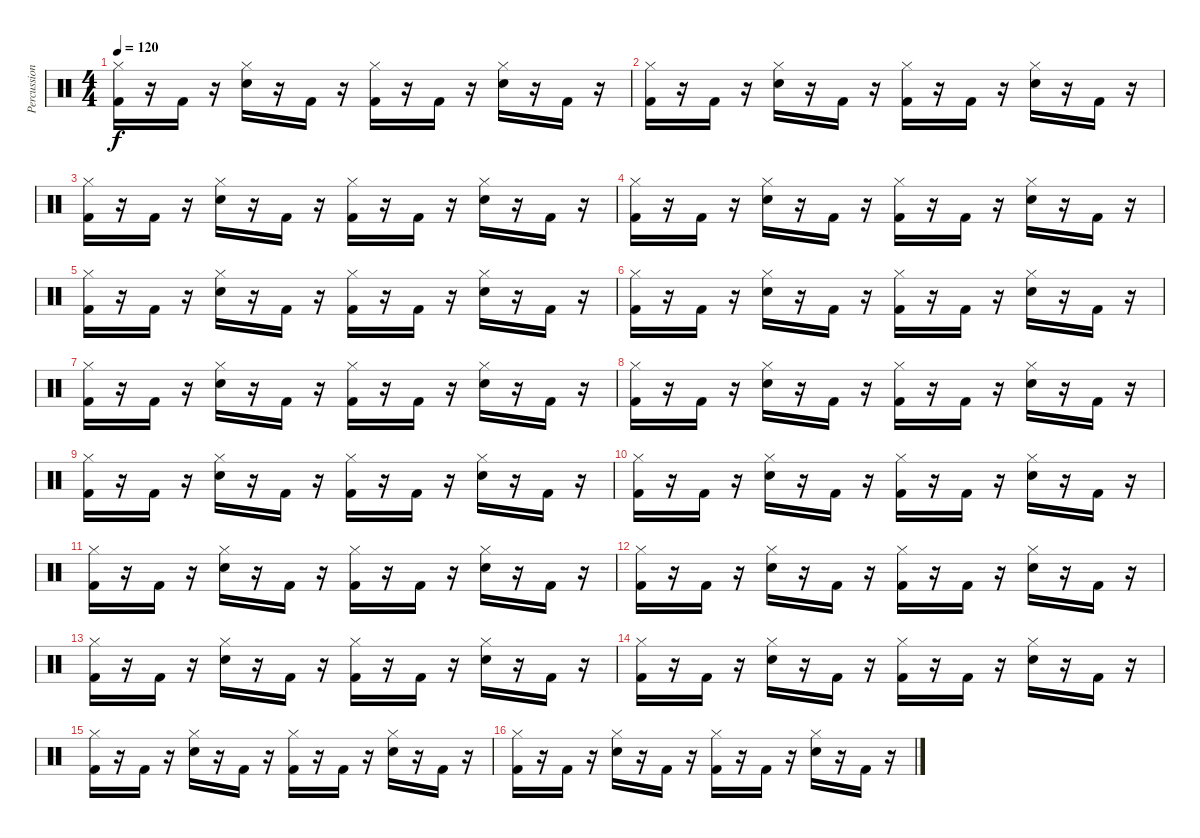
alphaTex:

\track ("Percussion" "Percussion") {instrument percussion}
\staff {score}
\articulation defaults
\ts (4 4)
\tempo 120
\clef neutral
\ks c
("Kick (hit) 2" "Hi-Hat (closed)").16{dy f} r.16 "Kick (hit) 2".16 r.16 ("Snare (hit) 2" "Hi-Hat (closed)").16 r.16 "Kick (hit) 2".16 r.16 ("Kick (hit) 2" "Hi-Hat (closed)").16 r.16 "Kick (hit) 2".16 r.16 ("Snare (hit) 2" "Hi-Hat (closed)").16 r.16 "Kick (hit) 2".16 r.16 |
("Kick (hit) 2" "Hi-Hat (closed)").16 r.16 "Kick (hit) 2".16 r.16 ("Snare (hit) 2" "Hi-Hat (closed)").16 r.16 "Kick (hit) 2".16 r.16 ("Kick (hit) 2" "Hi-Hat (closed)").16 r.16 "Kick (hit) 2".16 r.16 ("Snare (hit) 2" "Hi-Hat (closed)").16 r.16 "Kick (hit) 2".16 r.16 |
("Kick (hit) 2" "Hi-Hat (closed)").16 r.16 "Kick (hit) 2".16 r.16 ("Snare (hit) 2" "Hi-Hat (closed)").16 r.16 "Kick (hit) 2".16 r.16 ("Kick (hit) 2" "Hi-Hat (closed)").16 r.16 "Kick (hit) 2".16 r.16 ("Snare (hit) 2" "Hi-Hat (closed)").16 r.16 "Kick (hit) 2".16 r.16 |
("Kick (hit) 2" "Hi-Hat (closed)").16 r.16 "Kick (hit) 2".16 r.16 ("Snare (hit) 2" "Hi-Hat (closed)").16 r.16 "Kick (hit) 2".16 r.16 ("Kick (hit) 2" "Hi-Hat (closed)").16 r.16 "Kick (hit) 2".16 r.16 ("Snare (hit) 2" "Hi-Hat (closed)").16 r.16 "Kick (hit) 2".16 r.16 |
("Kick (hit) 2" "Hi-Hat (closed)").16 r.16 "Kick (hit) 2".16 r.16 ("Snare (hit) 2" "Hi-Hat (closed)").16 r.16 "Kick (hit) 2".16 r.16 ("Kick (hit) 2" "Hi-Hat (closed)").16 r.16 "Kick (hit) 2".16 r.16 ("Snare (hit) 2" "Hi-Hat (closed)").16 r.16 "Kick (hit) 2".16 r.16 |
("Kick (hit) 2" "Hi-Hat (closed)").16 r.16 "Kick (hit) 2".16 r.16 ("Snare (hit) 2" "Hi-Hat (closed)").16 r.16 "Kick (hit) 2".16 r.16 ("Kick (hit) 2" "Hi-Hat (closed)").16 r.16 "Kick (hit) 2".16 r.16 ("Snare (hit) 2" "Hi-Hat (closed)").16 r.16 "Kick (hit) 2".16 r.16 |
("Kick (hit) 2" "Hi-Hat (closed)").16 r.16 "Kick (hit) 2".16 r.16 ("Snare (hit) 2" "Hi-Hat (closed)").16 r.16 "Kick (hit) 2".16 r.16 ("Kick (hit) 2" "Hi-Hat (closed)").16 r.16 "Kick (hit) 2".16 r.16 ("Snare (hit) 2" "Hi-Hat (closed)").16 r.16 "Kick (hit) 2".16 r.16 |
("Kick (hit) 2" "Hi-Hat (closed)").16 r.16 "Kick (hit) 2".16 r.16 ("Snare (hit) 2" "Hi-Hat (closed)").16 r.16 "Kick (hit) 2".16 r.16 ("Kick (hit) 2" "Hi-Hat (closed)").16 r.16 "Kick (hit) 2".16 r.16 ("Snare (hit) 2" "Hi-Hat (closed)").16 r.16 "Kick (hit) 2".16 r.16 |
("Kick (hit) 2" "Hi-Hat (closed)").16 r.16 "Kick (hit) 2".16 r.16 ("Snare (hit) 2" "Hi-Hat (closed)").16 r.16 "Kick (hit) 2".16 r.16 ("Kick (hit) 2" "Hi-Hat (closed)").16 r.16 "Kick (hit) 2".16 r.16 ("Snare (hit) 2" "Hi-Hat (closed)").16 r.16 "Kick (hit) 2".16 r.16 |
("Kick (hit) 2" "Hi-Hat (closed)").16 r.16 "Kick (hit) 2".16 r.16 ("Snare (hit) 2" "Hi-Hat (closed)").16 r.16 "Kick (hit) 2".16 r.16 ("Kick (hit) 2" "Hi-Hat (closed)").16 r.16 "Kick (hit) 2".16 r.16 ("Snare (hit) 2" "Hi-Hat (closed)").16 r.16 "Kick (hit) 2".16 r.16 |
("Kick (hit) 2" "Hi-Hat (closed)").16 r.16 "Kick (hit) 2".16 r.16 ("Snare (hit) 2" "Hi-Hat (closed)").16 r.16 "Kick (hit) 2".16 r.16 ("Kick (hit) 2" "Hi-Hat (closed)").16 r.16 "Kick (hit) 2".16 r.16 ("Snare (hit) 2" "Hi-Hat (closed)").16 r.16 "Kick (hit) 2".16 r.16 |
("Kick (hit) 2" "Hi-Hat (closed)").16 r.16 "Kick (hit) 2".16 r.16 ("Snare (hit) 2" "Hi-Hat (closed)").16 r.16 "Kick (hit) 2".16 r.16 ("Kick (hit) 2" "Hi-Hat (closed)").16 r.16 "Kick (hit) 2".16 r.16 ("Snare (hit) 2" "Hi-Hat (closed)").16 r.16 "Kick (hit) 2".16 r.16 |
("Kick (hit) 2" "Hi-Hat (closed)").16 r.16 "Kick (hit) 2".16 r.16 ("Snare (hit) 2" "Hi-Hat (closed)").16 r.16 "Kick (hit) 2".16 r.16 ("Kick (hit) 2" "Hi-Hat (closed)").16 r.16 "Kick (hit) 2".16 r.16 ("Snare (hit) 2" "Hi-Hat (closed)").16 r.16 "Kick (hit) 2".16 r.16 |
("Kick (hit) 2" "Hi-Hat (closed)").16 r.16 "Kick (hit) 2".16 r.16 ("Snare (hit) 2" "Hi-Hat (closed)").16 r.16 "Kick (hit) 2".16 r.16 ("Kick (hit) 2" "Hi-Hat (closed)").16 r.16 "Kick (hit) 2".16 r.16 ("Snare (hit) 2" "Hi-Hat (closed)").16 r.16 "Kick (hit) 2".16 r.16 |
("Kick (hit) 2" "Hi-Hat (closed)").16 r.16 "Kick (hit) 2".16 r.16 ("Snare (hit) 2" "Hi-Hat (closed)").16 r.16 "Kick (hit) 2".16 r.16 ("Kick (hit) 2" "Hi-Hat (closed)").16 r.16 "Kick (hit) 2".16 r.16 ("Snare (hit) 2" "Hi-Hat (closed)").16 r.16 "Kick (hit) 2".16 r.16 |
("Kick (hit) 2" "Hi-Hat (closed)").16 r.16 "Kick (hit) 2".16 r.16 ("Snare (hit) 2" "Hi-Hat (closed)").16 r.16 "Kick (hit) 2".16 r.16 ("Kick (hit) 2" "Hi-Hat (closed)").16 r.16 "Kick (hit) 2".16 r.16 ("Snare (hit) 2" "Hi-Hat (closed)").16 r.16 "Kick (hit) 2".16 r.16
